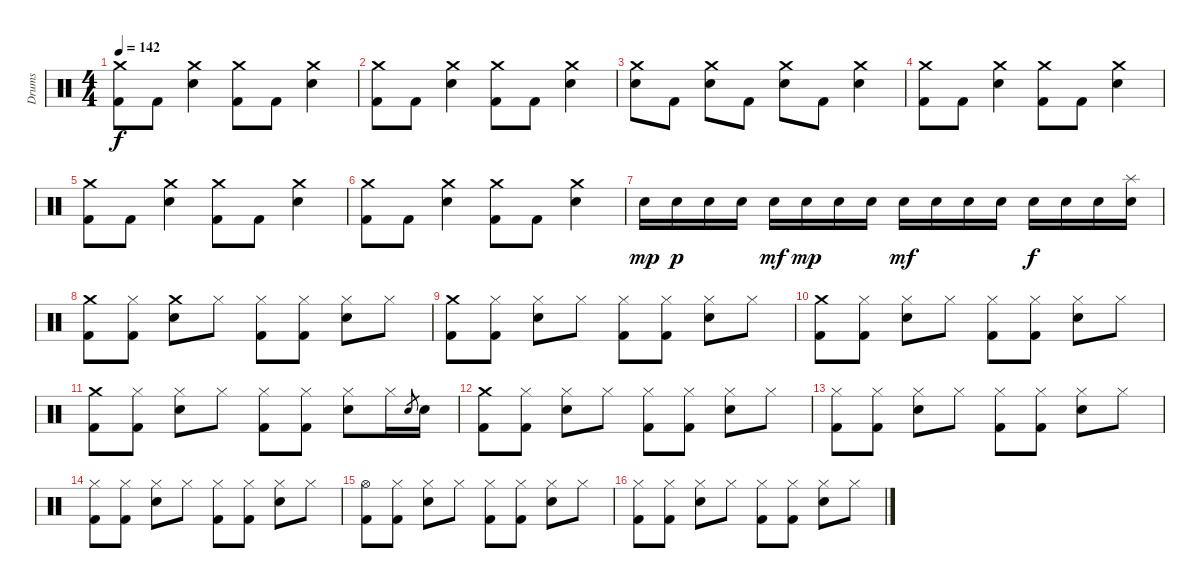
\track ("Drums" "Drums") {instrument percussion}
\staff {score}
\articulation defaults
\ts (4 4)
\tempo 142
\clef neutral
\ks c
("Crash medium (hit)" "Kick (hit) 2").8{dy f} "Kick (hit) 2".8 ("Crash medium (hit)" "Electric Snare (hit)").4 ("Crash medium (hit)" "Kick (hit) 2").8 "Kick (hit) 2".8 ("Crash medium (hit)" "Electric Snare (hit)").4 |
("Crash medium (hit)" "Kick (hit) 2").8 "Kick (hit) 2".8 ("Crash medium (hit)" "Electric Snare (hit)").4 ("Crash medium (hit)" "Kick (hit) 2").8 "Kick (hit) 2".8 ("Crash medium (hit)" "Electric Snare (hit)").4 |
("Crash medium (hit)" "Electric Snare (hit)").8 "Kick (hit) 2".8 ("Crash medium (hit)" "Electric Snare (hit)").8 "Kick (hit) 2".8 ("Crash medium (hit)" "Electric Snare (hit)").8 "Kick (hit) 2".8 ("Crash medium (hit)" "Electric Snare (hit)").4 |
("Crash medium (hit)" "Kick (hit) 2").8 "Kick (hit) 2".8 ("Crash medium (hit)" "Electric Snare (hit)").4 ("Crash medium (hit)" "Kick (hit) 2").8 "Kick (hit) 2".8 ("Crash medium (hit)" "Electric Snare (hit)").4 |
("Crash medium (hit)" "Kick (hit) 2").8 "Kick (hit) 2".8 ("Crash medium (hit)" "Electric Snare (hit)").4 ("Crash medium (hit)" "Kick (hit) 2").8 "Kick (hit) 2".8 ("Crash medium (hit)" "Electric Snare (hit)").4 |
("Crash medium (hit)" "Kick (hit) 2").8 "Kick (hit) 2".8 ("Crash medium (hit)" "Electric Snare (hit)").4 ("Crash medium (hit)" "Kick (hit) 2").8 "Kick (hit) 2".8 ("Crash medium (hit)" "Electric Snare (hit)").4 |
"Electric Snare (hit)".16{dy mp} "Electric Snare (hit)".16{dy p} "Electric Snare (hit)".16 "Electric Snare (hit)".16 "Electric Snare (hit)".16{dy mf} "Electric Snare (hit)".16{dy mp} "Electric Snare (hit)".16 "Electric Snare (hit)".16 "Electric Snare (hit)".16{dy mf} "Electric Snare (hit)".16 "Electric Snare (hit)".16 "Electric Snare (hit)".16 "Electric Snare (hit)".16{dy f} "Electric Snare (hit)".16 "Electric Snare (hit)".16 ("Splash (hit)" "Electric Snare (hit)").16 |
("Crash medium (hit)" "Kick (hit) 2").8 ("Hi-Hat (closed)" "Kick (hit) 2").8 ("Crash medium (hit)" "Electric Snare (hit)").8 "Hi-Hat (closed)".8 ("Hi-Hat (closed)" "Kick (hit) 2").8 ("Hi-Hat (closed)" "Kick (hit) 2").8 ("Hi-Hat (closed)" "Electric Snare (hit)").8 "Hi-Hat (closed)".8 |
("Crash medium (hit)" "Kick (hit) 2").8 ("Hi-Hat (closed)" "Kick (hit) 2").8 ("Hi-Hat (closed)" "Electric Snare (hit)").8 "Hi-Hat (closed)".8 ("Hi-Hat (closed)" "Kick (hit) 2").8 ("Hi-Hat (closed)" "Kick (hit) 2").8 ("Hi-Hat (closed)" "Electric Snare (hit)").8 "Hi-Hat (closed)".8 |
("Crash medium (hit)" "Kick (hit) 2").8 ("Hi-Hat (closed)" "Kick (hit) 2").8 ("Hi-Hat (closed)" "Electric Snare (hit)").8 "Hi-Hat (closed)".8 ("Hi-Hat (closed)" "Kick (hit) 2").8 ("Hi-Hat (closed)" "Kick (hit) 2").8 ("Hi-Hat (closed)" "Electric Snare (hit)").8 "Hi-Hat (closed)".8 |
("Crash medium (hit)" "Kick (hit) 2").8 ("Hi-Hat (closed)" "Kick (hit) 2").8 ("Hi-Hat (closed)" "Electric Snare (hit)").8 "Hi-Hat (closed)".8 ("Hi-Hat (closed)" "Kick (hit) 2").8 ("Hi-Hat (closed)" "Kick (hit) 2").8 ("Hi-Hat (closed)" "Electric Snare (hit)").8 "Hi-Hat (closed)".16 "Electric Snare (hit)".8{gr} "Electric Snare (hit)".16 |
("Crash medium (hit)" "Kick (hit) 2").8 ("Hi-Hat (closed)" "Kick (hit) 2").8 ("Hi-Hat (closed)" "Electric Snare (hit)").8 "Hi-Hat (closed)".8 ("Hi-Hat (closed)" "Kick (hit) 2").8 ("Hi-Hat (closed)" "Kick (hit) 2").8 ("Hi-Hat (closed)" "Electric Snare (hit)").8 "Hi-Hat (closed)".8 |
("Hi-Hat (closed)" "Kick (hit) 2").8 ("Hi-Hat (closed)" "Kick (hit) 2").8 ("Hi-Hat (closed)" "Electric Snare (hit)").8 "Hi-Hat (closed)".8 ("Hi-Hat (closed)" "Kick (hit) 2").8 ("Hi-Hat (closed)" "Kick (hit) 2").8 ("Hi-Hat (closed)" "Electric Snare (hit)").8 "Hi-Hat (closed)".8 |
("Hi-Hat (closed)" "Kick (hit) 2").8 ("Hi-Hat (closed)" "Kick (hit) 2").8 ("Hi-Hat (closed)" "Electric Snare (hit)").8 "Hi-Hat (closed)".8 ("Hi-Hat (closed)" "Kick (hit) 2").8 ("Hi-Hat (closed)" "Kick (hit) 2").8 ("Hi-Hat (closed)" "Electric Snare (hit)").8 "Hi-Hat (closed)".8 |
("Hi-Hat (open)" "Kick (hit) 2").8 ("Hi-Hat (closed)" "Kick (hit) 2").8 ("Hi-Hat (closed)" "Electric Snare (hit)").8 "Hi-Hat (closed)".8 ("Hi-Hat (closed)" "Kick (hit) 2").8 ("Hi-Hat (closed)" "Kick (hit) 2").8 ("Hi-Hat (closed)" "Electric Snare (hit)").8 "Hi-Hat (closed)".8 |
("Hi-Hat (closed)" "Kick (hit) 2").8 ("Hi-Hat (closed)" "Kick (hit) 2").8 ("Hi-Hat (closed)" "Electric Snare (hit)").8 "Hi-Hat (closed)".8 ("Hi-Hat (closed)" "Kick (hit) 2").8 ("Hi-Hat (closed)" "Kick (hit) 2").8 ("Hi-Hat (closed)" "Electric Snare (hit)").8 "Hi-Hat (closed)".8
